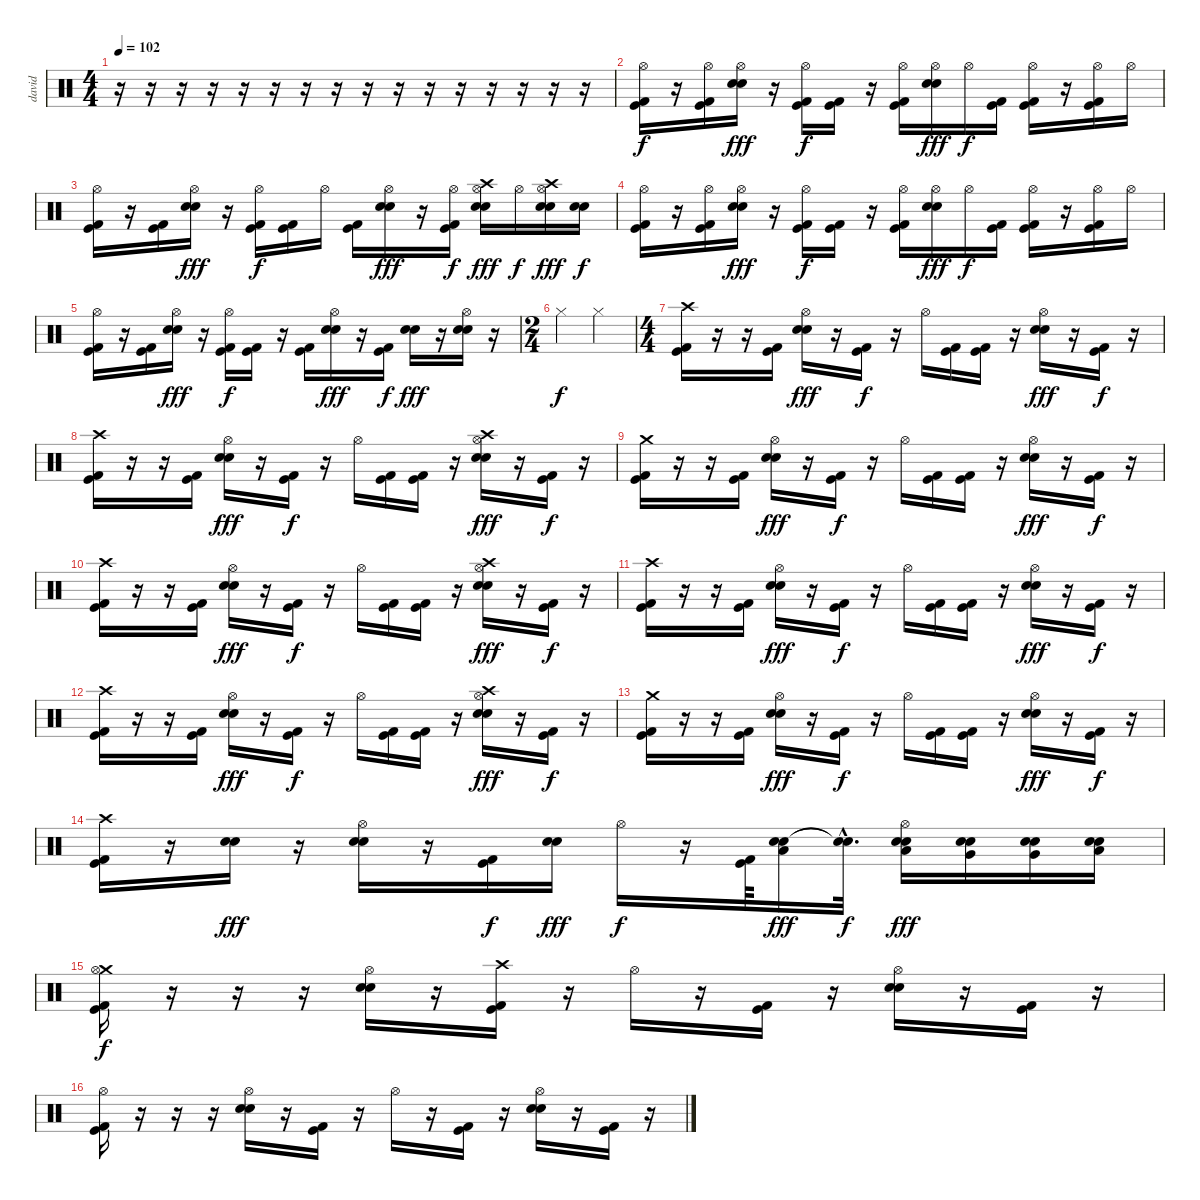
\track ("david" "david") {instrument percussion}
\staff {score}
\articulation defaults
\ts (4 4)
\tempo 102
\clef neutral
\ks c
r.16{dy f} r.16 r.16 r.16 r.16 r.16 r.16 r.16 r.16 r.16 r.16 r.16 r.16 r.16 r.16 r.16 |
("Hi-Hat (open)" "Kick (hit) 2" "Kick (hit)").16 r.16 ("Hi-Hat (open)" "Kick (hit) 2" "Kick (hit)").16 ("Hi-Hat (open)" "Electric Snare (hit)" "Snare (hit) 2").16{dy fff} r.16 ("Hi-Hat (open)" "Kick (hit) 2" "Kick (hit)").16{dy f} ("Kick (hit) 2" "Kick (hit)").16 r.16 ("Hi-Hat (open)" "Kick (hit) 2" "Kick (hit)").16 ("Hi-Hat (open)" "Electric Snare (hit)" "Snare (hit) 2").16{dy fff} "Hi-Hat (open)".16{dy f} ("Kick (hit) 2" "Kick (hit)").16 ("Hi-Hat (open)" "Kick (hit) 2" "Kick (hit)").16 r.16 ("Hi-Hat (open)" "Kick (hit) 2" "Kick (hit)").16 "Hi-Hat (open)".16 |
("Hi-Hat (open)" "Kick (hit) 2" "Kick (hit)").16 r.16 ("Kick (hit) 2" "Kick (hit)").16 ("Hi-Hat (open)" "Electric Snare (hit)" "Snare (hit) 2").16{dy fff} r.16 ("Hi-Hat (open)" "Kick (hit) 2" "Kick (hit)").16{dy f} ("Kick (hit) 2" "Kick (hit)").16 "Hi-Hat (open)".16 ("Kick (hit) 2" "Kick (hit)").16 ("Hi-Hat (open)" "Electric Snare (hit)" "Snare (hit) 2").16{dy fff} r.16 ("Hi-Hat (open)" "Kick (hit) 2" "Kick (hit)").16{dy f} ("Hi-Hat (open)" "Electric Snare (hit)" "Snare (hit) 2" "Crash high (hit)").16{dy fff} "Hi-Hat (open)".16{dy f} ("Hi-Hat (open)" "Electric Snare (hit)" "Snare (hit) 2" "Crash high (hit)").16{dy fff} ("Electric Snare (hit)" "Snare (hit) 2").16{dy f} |
("Hi-Hat (open)" "Kick (hit) 2" "Kick (hit)").16 r.16 ("Hi-Hat (open)" "Kick (hit) 2" "Kick (hit)").16 ("Hi-Hat (open)" "Electric Snare (hit)" "Snare (hit) 2").16{dy fff} r.16 ("Hi-Hat (open)" "Kick (hit) 2" "Kick (hit)").16{dy f} ("Kick (hit) 2" "Kick (hit)").16 r.16 ("Hi-Hat (open)" "Kick (hit) 2" "Kick (hit)").16 ("Hi-Hat (open)" "Electric Snare (hit)" "Snare (hit) 2").16{dy fff} "Hi-Hat (open)".16{dy f} ("Kick (hit) 2" "Kick (hit)").16 ("Hi-Hat (open)" "Kick (hit) 2" "Kick (hit)").16 r.16 ("Hi-Hat (open)" "Kick (hit) 2" "Kick (hit)").16 "Hi-Hat (open)".16 |
("Hi-Hat (open)" "Kick (hit) 2" "Kick (hit)").16 r.16 ("Kick (hit) 2" "Kick (hit)").16 ("Hi-Hat (open)" "Electric Snare (hit)" "Snare (hit) 2").16{dy fff} r.16 ("Hi-Hat (open)" "Kick (hit) 2" "Kick (hit)").16{dy f} ("Kick (hit) 2" "Kick (hit)").16 r.16 ("Kick (hit) 2" "Kick (hit)").16 ("Hi-Hat (open)" "Electric Snare (hit)" "Snare (hit) 2").16{dy fff} r.16 ("Kick (hit) 2" "Kick (hit)").16{dy f} ("Electric Snare (hit)" "Snare (hit) 2").16{dy fff} r.16 ("Hi-Hat (open)" "Electric Snare (hit)" "Snare (hit) 2").16 r.16 |
\ts (2 4)
"Hi-Hat (closed)".4{dy f} "Hi-Hat (closed)".4 |
\ts (4 4)
("Crash high (hit)" "Kick (hit) 2" "Kick (hit)").16 r.16 r.16 ("Kick (hit) 2" "Kick (hit)").16 ("Hi-Hat (open)" "Electric Snare (hit)" "Snare (hit) 2").16{dy fff} r.16 ("Kick (hit) 2" "Kick (hit)").16{dy f} r.16 "Hi-Hat (open)".16 ("Kick (hit) 2" "Kick (hit)").16 ("Kick (hit) 2" "Kick (hit)").16 r.16 ("Hi-Hat (open)" "Electric Snare (hit)" "Snare (hit) 2").16{dy fff} r.16 ("Kick (hit) 2" "Kick (hit)").16{dy f} r.16 |
("Crash high (hit)" "Kick (hit) 2" "Kick (hit)").16 r.16 r.16 ("Kick (hit) 2" "Kick (hit)").16 ("Hi-Hat (open)" "Electric Snare (hit)" "Snare (hit) 2").16{dy fff} r.16 ("Kick (hit) 2" "Kick (hit)").16{dy f} r.16 "Hi-Hat (open)".16 ("Kick (hit) 2" "Kick (hit)").16 ("Kick (hit) 2" "Kick (hit)").16 r.16 ("Hi-Hat (open)" "Crash high (hit)" "Electric Snare (hit)" "Snare (hit) 2").16{dy fff} r.16 ("Kick (hit) 2" "Kick (hit)").16{dy f} r.16 |
("Crash medium (hit)" "Kick (hit) 2" "Kick (hit)").16 r.16 r.16 ("Kick (hit) 2" "Kick (hit)").16 ("Hi-Hat (open)" "Electric Snare (hit)" "Snare (hit) 2").16{dy fff} r.16 ("Kick (hit) 2" "Kick (hit)").16{dy f} r.16 "Hi-Hat (open)".16 ("Kick (hit) 2" "Kick (hit)").16 ("Kick (hit) 2" "Kick (hit)").16 r.16 ("Hi-Hat (open)" "Electric Snare (hit)" "Snare (hit) 2").16{dy fff} r.16 ("Kick (hit) 2" "Kick (hit)").16{dy f} r.16 |
("Crash high (hit)" "Kick (hit) 2" "Kick (hit)").16 r.16 r.16 ("Kick (hit) 2" "Kick (hit)").16 ("Hi-Hat (open)" "Electric Snare (hit)" "Snare (hit) 2").16{dy fff} r.16 ("Kick (hit) 2" "Kick (hit)").16{dy f} r.16 "Hi-Hat (open)".16 ("Kick (hit) 2" "Kick (hit)").16 ("Kick (hit) 2" "Kick (hit)").16 r.16 ("Hi-Hat (open)" "Crash high (hit)" "Electric Snare (hit)" "Snare (hit) 2").16{dy fff} r.16 ("Kick (hit) 2" "Kick (hit)").16{dy f} r.16 |
("Crash high (hit)" "Kick (hit) 2" "Kick (hit)").16 r.16 r.16 ("Kick (hit) 2" "Kick (hit)").16 ("Hi-Hat (open)" "Electric Snare (hit)" "Snare (hit) 2").16{dy fff} r.16 ("Kick (hit) 2" "Kick (hit)").16{dy f} r.16 "Hi-Hat (open)".16 ("Kick (hit) 2" "Kick (hit)").16 ("Kick (hit) 2" "Kick (hit)").16 r.16 ("Hi-Hat (open)" "Electric Snare (hit)" "Snare (hit) 2").16{dy fff} r.16 ("Kick (hit) 2" "Kick (hit)").16{dy f} r.16 |
("Crash high (hit)" "Kick (hit) 2" "Kick (hit)").16 r.16 r.16 ("Kick (hit) 2" "Kick (hit)").16 ("Hi-Hat (open)" "Electric Snare (hit)" "Snare (hit) 2").16{dy fff} r.16 ("Kick (hit) 2" "Kick (hit)").16{dy f} r.16 "Hi-Hat (open)".16 ("Kick (hit) 2" "Kick (hit)").16 ("Kick (hit) 2" "Kick (hit)").16 r.16 ("Hi-Hat (open)" "Crash high (hit)" "Electric Snare (hit)" "Snare (hit) 2").16{dy fff} r.16 ("Kick (hit) 2" "Kick (hit)").16{dy f} r.16 |
("Crash medium (hit)" "Kick (hit) 2" "Kick (hit)").16 r.16 r.16 ("Kick (hit) 2" "Kick (hit)").16 ("Hi-Hat (open)" "Electric Snare (hit)" "Snare (hit) 2").16{dy fff} r.16 ("Kick (hit) 2" "Kick (hit)").16{dy f} r.16 "Hi-Hat (open)".16 ("Kick (hit) 2" "Kick (hit)").16 ("Kick (hit) 2" "Kick (hit)").16 r.16 ("Hi-Hat (open)" "Electric Snare (hit)" "Snare (hit) 2").16{dy fff} r.16 ("Kick (hit) 2" "Kick (hit)").16{dy f} r.16 |
("Crash high (hit)" "Kick (hit) 2" "Kick (hit)").16 r.16 ("Electric Snare (hit)" "Snare (hit) 2").16{dy fff} r.16 ("Hi-Hat (open)" "Electric Snare (hit)" "Snare (hit) 2").16 r.16 ("Kick (hit) 2" "Kick (hit)").16{dy f} ("Electric Snare (hit)" "Snare (hit) 2").16{dy fff} "Hi-Hat (open)".16{dy f} r.16 ("Kick (hit)" "Kick (hit) 2").64 ("Electric Snare (hit)" "Snare (hit) 2" "Low Tom (hit)").16{dy fff} ("Snare (hit)"{hac t} "Snare (hit)"{hac t}).32{d dy f} ("Hi-Hat (open)" "Low Tom (hit)" "Electric Snare (hit)" "Snare (hit) 2").16{dy fff} ("Very Low Tom (hit)" "Electric Snare (hit)" "Snare (hit) 2").16 ("Very Low Tom (hit)" "Electric Snare (hit)" "Snare (hit) 2").16 ("Low Floor Tom (hit)" "Electric Snare (hit)" "Snare (hit) 2").16 |
("Crash medium (hit)" "Hi-Hat (open)" "Kick (hit) 2" "Kick (hit)").16{dy f} r.16 r.16 r.16 ("Hi-Hat (open)" "Electric Snare (hit)" "Snare (hit) 2").16 r.16 ("Crash high (hit)" "Kick (hit) 2" "Kick (hit)").16 r.16 "Hi-Hat (open)".16 r.16 ("Kick (hit) 2" "Kick (hit)").16 r.16 ("Hi-Hat (open)" "Electric Snare (hit)" "Snare (hit) 2").16 r.16 ("Kick (hit) 2" "Kick (hit)").16 r.16 |
("Hi-Hat (open)" "Kick (hit) 2" "Kick (hit)").16 r.16 r.16 r.16 ("Hi-Hat (open)" "Electric Snare (hit)" "Snare (hit) 2").16 r.16 ("Kick (hit) 2" "Kick (hit)").16 r.16 "Hi-Hat (open)".16 r.16 ("Kick (hit) 2" "Kick (hit)").16 r.16 ("Hi-Hat (open)" "Electric Snare (hit)" "Snare (hit) 2").16 r.16 ("Kick (hit) 2" "Kick (hit)").16 r.16
